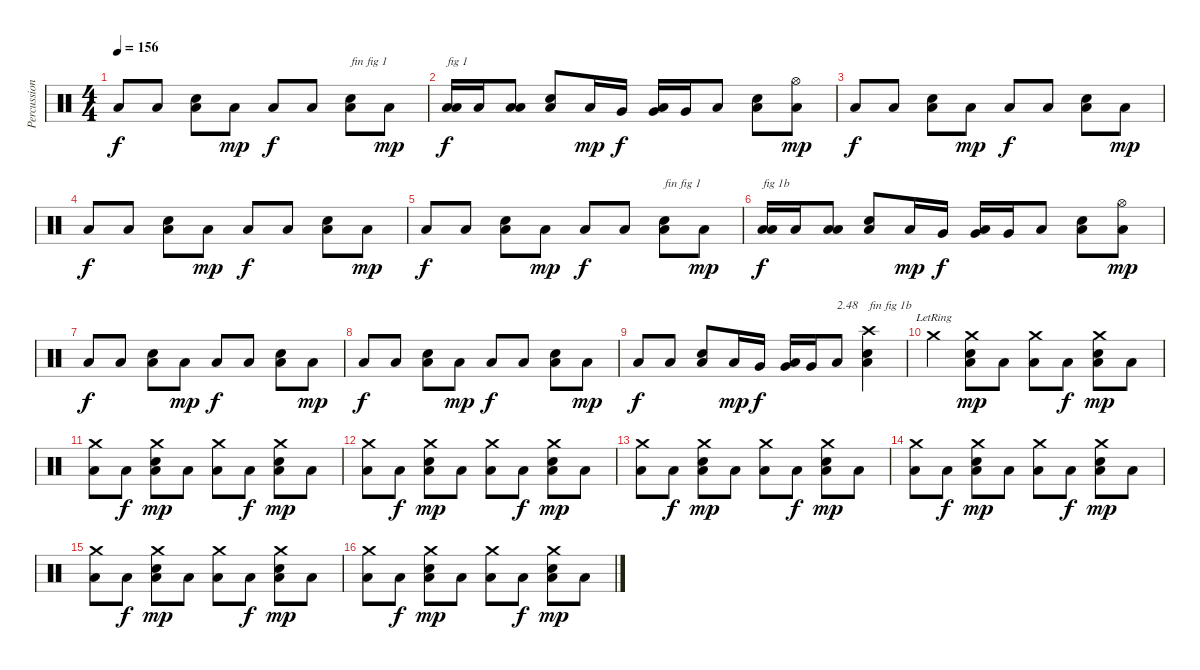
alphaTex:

\track ("Percussions" "Percussion") {instrument percussion}
\staff {score}
\articulation defaults
\ts (4 4)
\tempo 156
\clef neutral
\ks c "Low Floor Tom (hit)".8{dy f} "Low Floor Tom (hit)".8
("Low Floor Tom (hit)" "Snare (hit) 2").8 "Low Floor Tom (hit)".8{dy mp} "Low Floor Tom (hit)".8{dy f} "Low Floor Tom (hit)".8 ("Low Floor Tom (hit)" "Snare (hit) 2").8{txt "fin fig 1"} "Low Floor Tom (hit)".8{dy mp} |
("Low Floor Tom (hit)" "Low Tom (hit)").16{txt "fig 1" dy f} "Low Tom (hit)".16 ("Low Floor Tom (hit)" "Low Tom (hit)").8 ("Low Floor Tom (hit)" "Snare (hit) 2").8 "Low Floor Tom (hit)".16{dy mp} "Very Low Tom (hit)".16{dy f} ("Low Floor Tom (hit)" "Very Low Tom (hit)").16 "Very Low Tom (hit)".16 "Low Floor Tom (hit)".8 ("Low Floor Tom (hit)" "Snare (hit) 2").8 ("Low Floor Tom (hit)" "Hi-Hat (open)").8{dy mp} |
"Low Floor Tom (hit)".8{dy f} "Low Floor Tom (hit)".8 ("Low Floor Tom (hit)" "Snare (hit) 2").8 "Low Floor Tom (hit)".8{dy mp} "Low Floor Tom (hit)".8{dy f} "Low Floor Tom (hit)".8 ("Low Floor Tom (hit)" "Snare (hit) 2").8 "Low Floor Tom (hit)".8{dy mp} |
"Low Floor Tom (hit)".8{dy f} "Low Floor Tom (hit)".8 ("Low Floor Tom (hit)" "Snare (hit) 2").8 "Low Floor Tom (hit)".8{dy mp} "Low Floor Tom (hit)".8{dy f} "Low Floor Tom (hit)".8 ("Low Floor Tom (hit)" "Snare (hit) 2").8 "Low Floor Tom (hit)".8{dy mp} |
"Low Floor Tom (hit)".8{dy f} "Low Floor Tom (hit)".8 ("Low Floor Tom (hit)" "Snare (hit) 2").8 "Low Floor Tom (hit)".8{dy mp} "Low Floor Tom (hit)".8{dy f} "Low Floor Tom (hit)".8 ("Low Floor Tom (hit)" "Snare (hit) 2").8{txt "fin fig 1"} "Low Floor Tom (hit)".8{dy mp} |
("Low Floor Tom (hit)" "Low Tom (hit)").16{txt "fig 1b" dy f} "Low Tom (hit)".16 ("Low Floor Tom (hit)" "Low Tom (hit)").8 ("Low Floor Tom (hit)" "Snare (hit) 2").8 "Low Floor Tom (hit)".16{dy mp} "Very Low Tom (hit)".16{dy f} ("Low Floor Tom (hit)" "Very Low Tom (hit)").16 "Very Low Tom (hit)".16 "Low Floor Tom (hit)".8 ("Low Floor Tom (hit)" "Snare (hit) 2").8 ("Low Floor Tom (hit)" "Hi-Hat (open)").8{dy mp} |
"Low Floor Tom (hit)".8{dy f} "Low Floor Tom (hit)".8 ("Low Floor Tom (hit)" "Snare (hit) 2").8 "Low Floor Tom (hit)".8{dy mp} "Low Floor Tom (hit)".8{dy f} "Low Floor Tom (hit)".8 ("Low Floor Tom (hit)" "Snare (hit) 2").8 "Low Floor Tom (hit)".8{dy mp} |
"Low Floor Tom (hit)".8{dy f} "Low Floor Tom (hit)".8 ("Low Floor Tom (hit)" "Snare (hit) 2").8 "Low Floor Tom (hit)".8{dy mp} "Low Floor Tom (hit)".8{dy f} "Low Floor Tom (hit)".8 ("Low Floor Tom (hit)" "Snare (hit) 2").8 "Low Floor Tom (hit)".8{dy mp} |
"Low Floor Tom (hit)".8{dy f} "Low Floor Tom (hit)".8 ("Low Floor Tom (hit)" "Snare (hit) 2").8 "Low Floor Tom (hit)".16{dy mp} "Very Low Tom (hit)".16{dy f} ("Low Floor Tom (hit)" "Very Low Tom (hit)").16 "Very Low Tom (hit)".16 "Low Floor Tom (hit)".8{txt "2.48"} ("Low Floor Tom (hit)" "Snare (hit) 2" "Crash high (hit)").4{txt "fin fig 1b"} |
"Crash medium (hit)"{lr}.4 ("Low Floor Tom (hit)" "Snare (hit) 2" "Crash medium (hit)").8{dy mp} "Low Floor Tom (hit)".8 ("Low Floor Tom (hit)" "Crash medium (hit)").8 "Low Floor Tom (hit)".8{dy f} ("Low Floor Tom (hit)" "Snare (hit) 2" "Crash medium (hit)").8{dy mp} "Low Floor Tom (hit)".8 |
("Low Floor Tom (hit)" "Crash medium (hit)").8 "Low Floor Tom (hit)".8{dy f} ("Low Floor Tom (hit)" "Snare (hit) 2" "Crash medium (hit)").8{dy mp} "Low Floor Tom (hit)".8 ("Low Floor Tom (hit)" "Crash medium (hit)").8 "Low Floor Tom (hit)".8{dy f} ("Low Floor Tom (hit)" "Snare (hit) 2" "Crash medium (hit)").8{dy mp} "Low Floor Tom (hit)".8 |
("Low Floor Tom (hit)" "Crash medium (hit)").8 "Low Floor Tom (hit)".8{dy f} ("Low Floor Tom (hit)" "Snare (hit) 2" "Crash medium (hit)").8{dy mp} "Low Floor Tom (hit)".8 ("Low Floor Tom (hit)" "Crash medium (hit)").8 "Low Floor Tom (hit)".8{dy f} ("Low Floor Tom (hit)" "Snare (hit) 2" "Crash medium (hit)").8{dy mp} "Low Floor Tom (hit)".8 |
("Low Floor Tom (hit)" "Crash medium (hit)").8 "Low Floor Tom (hit)".8{dy f} ("Low Floor Tom (hit)" "Snare (hit) 2" "Crash medium (hit)").8{dy mp} "Low Floor Tom (hit)".8 ("Low Floor Tom (hit)" "Crash medium (hit)").8 "Low Floor Tom (hit)".8{dy f} ("Low Floor Tom (hit)" "Snare (hit) 2" "Crash medium (hit)").8{dy mp} "Low Floor Tom (hit)".8 |
("Low Floor Tom (hit)" "Crash medium (hit)").8 "Low Floor Tom (hit)".8{dy f} ("Low Floor Tom (hit)" "Snare (hit) 2" "Crash medium (hit)").8{dy mp} "Low Floor Tom (hit)".8 ("Low Floor Tom (hit)" "Crash medium (hit)").8 "Low Floor Tom (hit)".8{dy f} ("Low Floor Tom (hit)" "Snare (hit) 2" "Crash medium (hit)").8{dy mp} "Low Floor Tom (hit)".8 |
("Low Floor Tom (hit)" "Crash medium (hit)").8 "Low Floor Tom (hit)".8{dy f} ("Low Floor Tom (hit)" "Snare (hit) 2" "Crash medium (hit)").8{dy mp} "Low Floor Tom (hit)".8 ("Low Floor Tom (hit)" "Crash medium (hit)").8 "Low Floor Tom (hit)".8{dy f} ("Low Floor Tom (hit)" "Snare (hit) 2" "Crash medium (hit)").8{dy mp} "Low Floor Tom (hit)".8 |
("Low Floor Tom (hit)" "Crash medium (hit)").8 "Low Floor Tom (hit)".8{dy f} ("Low Floor Tom (hit)" "Snare (hit) 2" "Crash medium (hit)").8{dy mp} "Low Floor Tom (hit)".8 ("Low Floor Tom (hit)" "Crash medium (hit)").8 "Low Floor Tom (hit)".8{dy f} ("Low Floor Tom (hit)" "Snare (hit) 2" "Crash medium (hit)").8{dy mp} "Low Floor Tom (hit)".8
